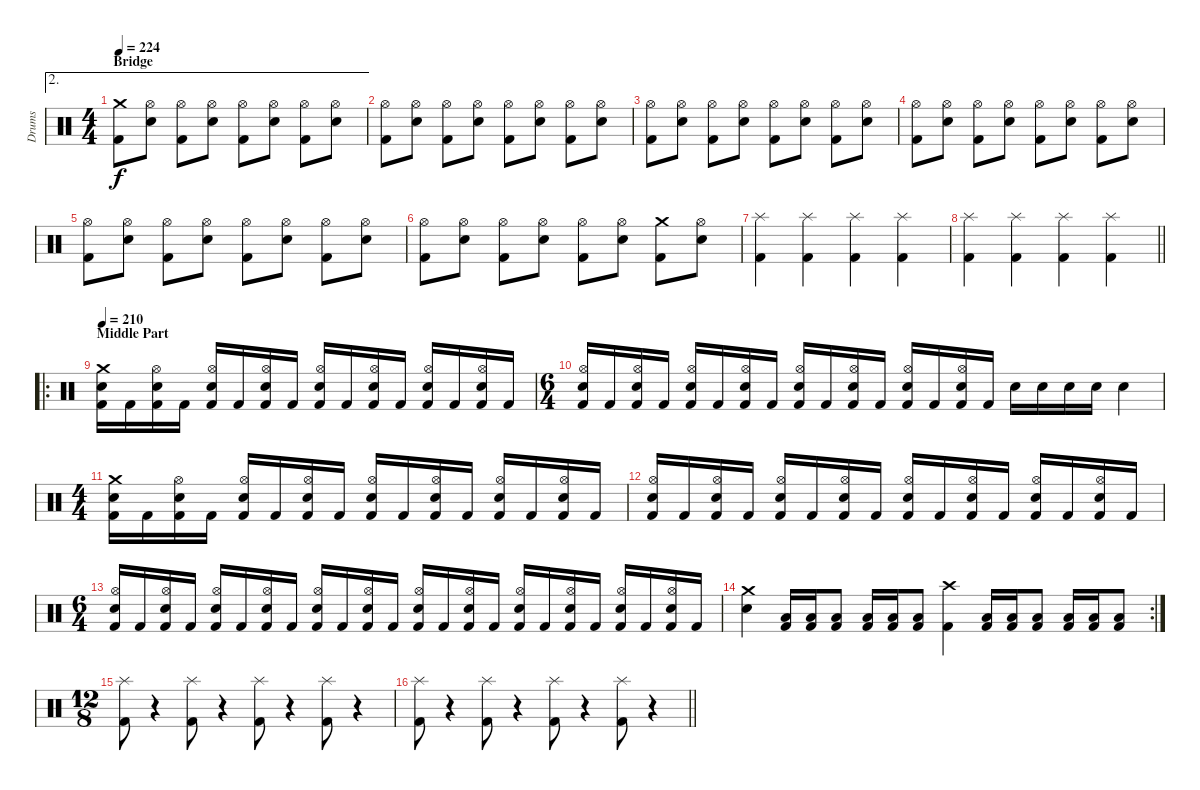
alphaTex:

\track ("Drums" "Drums") {instrument percussion}
\staff {score}
\articulation defaults
\ae 2
\ts (4 4)
\section ("" "Bridge")
\tempo 224
\clef neutral
\ks c
("Crash medium (hit)" "Kick (hit) 2").8{dy f} ("Hi-Hat (open)" "Electric Snare (hit)").8 ("Hi-Hat (open)" "Kick (hit) 2").8 ("Hi-Hat (open)" "Electric Snare (hit)").8 ("Hi-Hat (open)" "Kick (hit) 2").8 ("Hi-Hat (open)" "Electric Snare (hit)").8 ("Hi-Hat (open)" "Kick (hit) 2").8 ("Hi-Hat (open)" "Electric Snare (hit)").8 |
("Hi-Hat (open)" "Kick (hit) 2").8 ("Hi-Hat (open)" "Electric Snare (hit)").8 ("Hi-Hat (open)" "Kick (hit) 2").8 ("Hi-Hat (open)" "Electric Snare (hit)").8 ("Hi-Hat (open)" "Kick (hit) 2").8 ("Hi-Hat (open)" "Electric Snare (hit)").8 ("Hi-Hat (open)" "Kick (hit) 2").8 ("Hi-Hat (open)" "Electric Snare (hit)").8 |
("Hi-Hat (open)" "Kick (hit) 2").8 ("Hi-Hat (open)" "Electric Snare (hit)").8 ("Hi-Hat (open)" "Kick (hit) 2").8 ("Hi-Hat (open)" "Electric Snare (hit)").8 ("Hi-Hat (open)" "Kick (hit) 2").8 ("Hi-Hat (open)" "Electric Snare (hit)").8 ("Hi-Hat (open)" "Kick (hit) 2").8 ("Hi-Hat (open)" "Electric Snare (hit)").8 |
("Hi-Hat (open)" "Kick (hit) 2").8 ("Hi-Hat (open)" "Electric Snare (hit)").8 ("Hi-Hat (open)" "Kick (hit) 2").8 ("Hi-Hat (open)" "Electric Snare (hit)").8 ("Hi-Hat (open)" "Kick (hit) 2").8 ("Hi-Hat (open)" "Electric Snare (hit)").8 ("Hi-Hat (open)" "Kick (hit) 2").8 ("Hi-Hat (open)" "Electric Snare (hit)").8 |
("Hi-Hat (open)" "Kick (hit) 2").8 ("Hi-Hat (open)" "Electric Snare (hit)").8 ("Hi-Hat (open)" "Kick (hit) 2").8 ("Hi-Hat (open)" "Electric Snare (hit)").8 ("Hi-Hat (open)" "Kick (hit) 2").8 ("Hi-Hat (open)" "Electric Snare (hit)").8 ("Hi-Hat (open)" "Kick (hit) 2").8 ("Hi-Hat (open)" "Electric Snare (hit)").8 |
("Hi-Hat (open)" "Kick (hit) 2").8 ("Hi-Hat (open)" "Electric Snare (hit)").8 ("Hi-Hat (open)" "Kick (hit) 2").8 ("Hi-Hat (open)" "Electric Snare (hit)").8 ("Hi-Hat (open)" "Kick (hit) 2").8 ("Hi-Hat (open)" "Electric Snare (hit)").8 ("Crash medium (hit)" "Kick (hit) 2").8 ("Hi-Hat (open)" "Electric Snare (hit)").8 |
("Splash (hit)" "Kick (hit) 2").4 ("Splash (hit)" "Kick (hit) 2").4 ("Splash (hit)" "Kick (hit) 2").4 ("Splash (hit)" "Kick (hit) 2").4 |
\barLineRight lightlight
("Splash (hit)" "Kick (hit) 2").4 ("Splash (hit)" "Kick (hit) 2").4 ("Splash (hit)" "Kick (hit) 2").4 ("Splash (hit)" "Kick (hit) 2").4 |
\ro
\section ("" "Middle Part")
\tempo 210
("Crash medium (hit)" "Electric Snare (hit)" "Kick (hit) 2").16 "Kick (hit) 2".16 ("Hi-Hat (open)" "Electric Snare (hit)" "Kick (hit) 2").16 "Kick (hit) 2".16 ("Hi-Hat (open)" "Electric Snare (hit)" "Kick (hit) 2").16 "Kick (hit) 2".16 ("Hi-Hat (open)" "Electric Snare (hit)" "Kick (hit) 2").16 "Kick (hit) 2".16 ("Hi-Hat (open)" "Electric Snare (hit)" "Kick (hit) 2").16 "Kick (hit) 2".16 ("Hi-Hat (open)" "Electric Snare (hit)" "Kick (hit) 2").16 "Kick (hit) 2".16 ("Hi-Hat (open)" "Electric Snare (hit)" "Kick (hit) 2").16 "Kick (hit) 2".16 ("Hi-Hat (open)" "Electric Snare (hit)" "Kick (hit) 2").16 "Kick (hit) 2".16 |
\ts (6 4)
("Hi-Hat (open)" "Electric Snare (hit)" "Kick (hit) 2").16 "Kick (hit) 2".16 ("Hi-Hat (open)" "Electric Snare (hit)" "Kick (hit) 2").16 "Kick (hit) 2".16 ("Hi-Hat (open)" "Electric Snare (hit)" "Kick (hit) 2").16 "Kick (hit) 2".16 ("Hi-Hat (open)" "Electric Snare (hit)" "Kick (hit) 2").16 "Kick (hit) 2".16 ("Hi-Hat (open)" "Electric Snare (hit)" "Kick (hit) 2").16 "Kick (hit) 2".16 ("Hi-Hat (open)" "Electric Snare (hit)" "Kick (hit) 2").16 "Kick (hit) 2".16 ("Hi-Hat (open)" "Electric Snare (hit)" "Kick (hit) 2").16 "Kick (hit) 2".16 ("Hi-Hat (open)" "Electric Snare (hit)" "Kick (hit) 2").16 "Kick (hit) 2".16 "Electric Snare (hit)".16 "Electric Snare (hit)".16 "Electric Snare (hit)".16 "Electric Snare (hit)".16 "Electric Snare (hit)".4 |
\ts (4 4)
("Crash medium (hit)" "Electric Snare (hit)" "Kick (hit) 2").16 "Kick (hit) 2".16 ("Hi-Hat (open)" "Electric Snare (hit)" "Kick (hit) 2").16 "Kick (hit) 2".16 ("Hi-Hat (open)" "Electric Snare (hit)" "Kick (hit) 2").16 "Kick (hit) 2".16 ("Hi-Hat (open)" "Electric Snare (hit)" "Kick (hit) 2").16 "Kick (hit) 2".16 ("Hi-Hat (open)" "Electric Snare (hit)" "Kick (hit) 2").16 "Kick (hit) 2".16 ("Hi-Hat (open)" "Electric Snare (hit)" "Kick (hit) 2").16 "Kick (hit) 2".16 ("Hi-Hat (open)" "Electric Snare (hit)" "Kick (hit) 2").16 "Kick (hit) 2".16 ("Hi-Hat (open)" "Electric Snare (hit)" "Kick (hit) 2").16 "Kick (hit) 2".16 |
("Hi-Hat (open)" "Electric Snare (hit)" "Kick (hit) 2").16 "Kick (hit) 2".16 ("Hi-Hat (open)" "Electric Snare (hit)" "Kick (hit) 2").16 "Kick (hit) 2".16 ("Hi-Hat (open)" "Electric Snare (hit)" "Kick (hit) 2").16 "Kick (hit) 2".16 ("Hi-Hat (open)" "Electric Snare (hit)" "Kick (hit) 2").16 "Kick (hit) 2".16 ("Hi-Hat (open)" "Electric Snare (hit)" "Kick (hit) 2").16 "Kick (hit) 2".16 ("Hi-Hat (open)" "Electric Snare (hit)" "Kick (hit) 2").16 "Kick (hit) 2".16 ("Hi-Hat (open)" "Electric Snare (hit)" "Kick (hit) 2").16 "Kick (hit) 2".16 ("Hi-Hat (open)" "Electric Snare (hit)" "Kick (hit) 2").16 "Kick (hit) 2".16 |
\ts (6 4)
("Hi-Hat (open)" "Electric Snare (hit)" "Kick (hit) 2").16 "Kick (hit) 2".16 ("Hi-Hat (open)" "Electric Snare (hit)" "Kick (hit) 2").16 "Kick (hit) 2".16 ("Hi-Hat (open)" "Electric Snare (hit)" "Kick (hit) 2").16 "Kick (hit) 2".16 ("Hi-Hat (open)" "Electric Snare (hit)" "Kick (hit) 2").16 "Kick (hit) 2".16 ("Hi-Hat (open)" "Electric Snare (hit)" "Kick (hit) 2").16 "Kick (hit) 2".16 ("Hi-Hat (open)" "Electric Snare (hit)" "Kick (hit) 2").16 "Kick (hit) 2".16 ("Hi-Hat (open)" "Electric Snare (hit)" "Kick (hit) 2").16 "Kick (hit) 2".16 ("Hi-Hat (open)" "Electric Snare (hit)" "Kick (hit) 2").16 "Kick (hit) 2".16 ("Hi-Hat (open)" "Electric Snare (hit)" "Kick (hit) 2").16 "Kick (hit) 2".16 ("Hi-Hat (open)" "Electric Snare (hit)" "Kick (hit) 2").16 "Kick (hit) 2".16 ("Hi-Hat (open)" "Electric Snare (hit)" "Kick (hit) 2").16 "Kick (hit) 2".16 ("Hi-Hat (open)" "Electric Snare (hit)" "Kick (hit) 2").16 "Kick (hit) 2".16 |
\rc 2
("Crash medium (hit)" "Electric Snare (hit)").4 ("Kick (hit) 2" "Low Tom (hit)").16 ("Kick (hit) 2" "Low Tom (hit)").16 ("Kick (hit) 2" "Low Tom (hit)").8 ("Kick (hit) 2" "Low Tom (hit)").16 ("Kick (hit) 2" "Low Tom (hit)").16 ("Kick (hit) 2" "Low Tom (hit)").8 ("Crash high (hit)" "Kick (hit) 2").4 ("Kick (hit) 2" "Low Tom (hit)").16 ("Kick (hit) 2" "Low Tom (hit)").16 ("Kick (hit) 2" "Low Tom (hit)").8 ("Kick (hit) 2" "Low Tom (hit)").16 ("Kick (hit) 2" "Low Tom (hit)").16 ("Kick (hit) 2" "Low Tom (hit)").8 |
\ts (12 8)
("Splash (hit)" "Kick (hit) 2").8 r.4 ("Splash (hit)" "Kick (hit) 2").8 r.4 ("Splash (hit)" "Kick (hit) 2").8 r.4 ("Splash (hit)" "Kick (hit) 2").8 r.4 |
\barLineRight lightlight
("Splash (hit)" "Kick (hit) 2").8 r.4 ("Splash (hit)" "Kick (hit) 2").8 r.4 ("Splash (hit)" "Kick (hit) 2").8 r.4 ("Splash (hit)" "Kick (hit) 2").8 r.4
